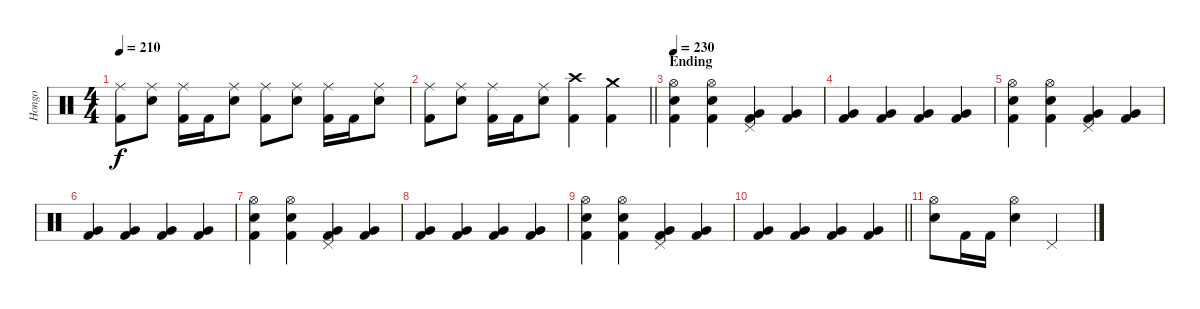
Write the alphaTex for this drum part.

\track ("Hongo" "Hongo") {instrument percussion}
\staff {score}
\articulation defaults
\ts (4 4)
\tempo 210
\clef neutral
\ks c
("Ride (middle)" "Kick (hit) 2").8{dy f} ("Ride (middle)" "Electric Snare (hit)").8 ("Ride (middle)" "Kick (hit) 2").16 "Kick (hit) 2".16 ("Ride (middle)" "Electric Snare (hit)").8 ("Ride (middle)" "Kick (hit) 2").8 ("Ride (middle)" "Electric Snare (hit)").8 ("Ride (middle)" "Kick (hit) 2").16 "Kick (hit) 2".16 ("Ride (middle)" "Electric Snare (hit)").8 |
\barLineRight lightlight
("Ride (middle)" "Kick (hit) 2").8 ("Ride (middle)" "Electric Snare (hit)").8 ("Ride (middle)" "Kick (hit) 2").16 "Kick (hit) 2".16 ("Ride (middle)" "Electric Snare (hit)").8 ("Crash high (hit)" "Kick (hit) 2").4 ("Crash medium (hit)" "Kick (hit) 2").4 |
\section ("" "Ending")
\tempo 230
("Hi-Hat (open)" "Electric Snare (hit)" "Kick (hit) 2").4 ("Hi-Hat (open)" "Electric Snare (hit)" "Kick (hit) 2").4 ("Pedal Hi-Hat (hit)" "Very Low Tom (hit)" "Kick (hit) 2").4 ("Very Low Tom (hit)" "Kick (hit) 2").4 |
("Very Low Tom (hit)" "Kick (hit) 2").4 ("Very Low Tom (hit)" "Kick (hit) 2").4 ("Very Low Tom (hit)" "Kick (hit) 2").4 ("Very Low Tom (hit)" "Kick (hit) 2").4 |
("Hi-Hat (open)" "Electric Snare (hit)" "Kick (hit) 2").4 ("Hi-Hat (open)" "Electric Snare (hit)" "Kick (hit) 2").4 ("Pedal Hi-Hat (hit)" "Very Low Tom (hit)" "Kick (hit) 2").4 ("Very Low Tom (hit)" "Kick (hit) 2").4 |
("Very Low Tom (hit)" "Kick (hit) 2").4 ("Very Low Tom (hit)" "Kick (hit) 2").4 ("Very Low Tom (hit)" "Kick (hit) 2").4 ("Very Low Tom (hit)" "Kick (hit) 2").4 |
("Hi-Hat (open)" "Electric Snare (hit)" "Kick (hit) 2").4 ("Hi-Hat (open)" "Electric Snare (hit)" "Kick (hit) 2").4 ("Pedal Hi-Hat (hit)" "Very Low Tom (hit)" "Kick (hit) 2").4 ("Very Low Tom (hit)" "Kick (hit) 2").4 |
("Very Low Tom (hit)" "Kick (hit) 2").4 ("Very Low Tom (hit)" "Kick (hit) 2").4 ("Very Low Tom (hit)" "Kick (hit) 2").4 ("Very Low Tom (hit)" "Kick (hit) 2").4 |
("Hi-Hat (open)" "Electric Snare (hit)" "Kick (hit) 2").4 ("Hi-Hat (open)" "Electric Snare (hit)" "Kick (hit) 2").4 ("Pedal Hi-Hat (hit)" "Very Low Tom (hit)" "Kick (hit) 2").4 ("Very Low Tom (hit)" "Kick (hit) 2").4 |
\barLineRight lightlight
("Very Low Tom (hit)" "Kick (hit) 2").4 ("Very Low Tom (hit)" "Kick (hit) 2").4 ("Very Low Tom (hit)" "Kick (hit) 2").4 ("Very Low Tom (hit)" "Kick (hit) 2").4 |
("Hi-Hat (open)" "Electric Snare (hit)").8 "Kick (hit) 2".16 "Kick (hit) 2".16 ("Hi-Hat (open)" "Electric Snare (hit)").4 "Pedal Hi-Hat (hit)".2
